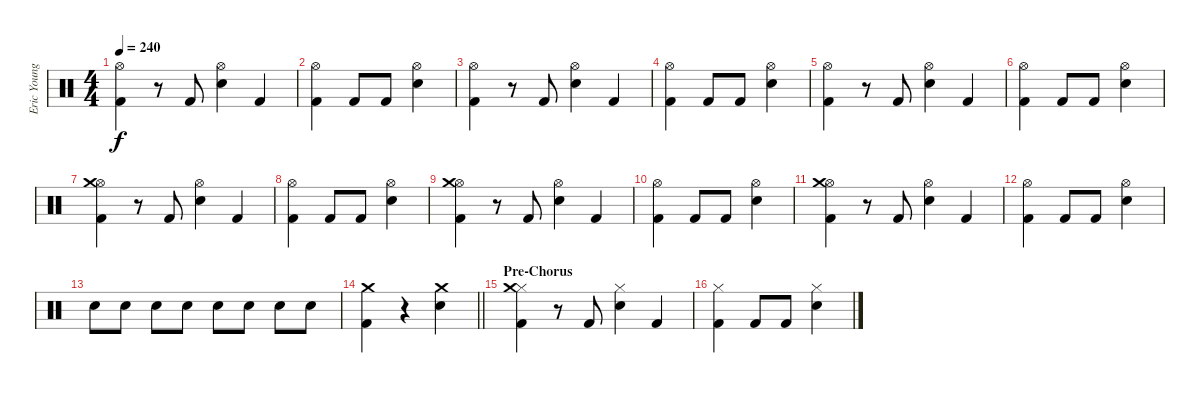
\track ("Eric Young (Drums)" "Eric Young") {instrument percussion}
\staff {score}
\articulation defaults
\ts (4 4)
\tempo 240
\clef neutral
\ks c
("Hi-Hat (open)" "Kick (hit) 2").4{dy f} r.8 "Kick (hit) 2".8 ("Hi-Hat (open)" "Snare (hit) 2").4 "Kick (hit) 2".4 |
("Hi-Hat (open)" "Kick (hit) 2").4 "Kick (hit) 2".8 "Kick (hit) 2".8 ("Hi-Hat (open)" "Snare (hit) 2").4 |
("Hi-Hat (open)" "Kick (hit) 2").4 r.8 "Kick (hit) 2".8 ("Hi-Hat (open)" "Snare (hit) 2").4 "Kick (hit) 2".4 |
("Hi-Hat (open)" "Kick (hit) 2").4 "Kick (hit) 2".8 "Kick (hit) 2".8 ("Hi-Hat (open)" "Snare (hit) 2").4 |
("Hi-Hat (open)" "Kick (hit) 2").4 r.8 "Kick (hit) 2".8 ("Hi-Hat (open)" "Snare (hit) 2").4 "Kick (hit) 2".4 |
("Hi-Hat (open)" "Kick (hit) 2").4 "Kick (hit) 2".8 "Kick (hit) 2".8 ("Hi-Hat (open)" "Snare (hit) 2").4 |
("Hi-Hat (open)" "Kick (hit) 2" "Crash medium (hit)").4 r.8 "Kick (hit) 2".8 ("Hi-Hat (open)" "Snare (hit) 2").4 "Kick (hit) 2".4 |
("Hi-Hat (open)" "Kick (hit) 2").4 "Kick (hit) 2".8 "Kick (hit) 2".8 ("Hi-Hat (open)" "Snare (hit) 2").4 |
("Hi-Hat (open)" "Kick (hit) 2" "Crash medium (hit)").4 r.8 "Kick (hit) 2".8 ("Hi-Hat (open)" "Snare (hit) 2").4 "Kick (hit) 2".4 |
("Hi-Hat (open)" "Kick (hit) 2").4 "Kick (hit) 2".8 "Kick (hit) 2".8 ("Hi-Hat (open)" "Snare (hit) 2").4 |
("Hi-Hat (open)" "Kick (hit) 2" "Crash medium (hit)").4 r.8 "Kick (hit) 2".8 ("Hi-Hat (open)" "Snare (hit) 2").4 "Kick (hit) 2".4 |
("Hi-Hat (open)" "Kick (hit) 2").4 "Kick (hit) 2".8 "Kick (hit) 2".8 ("Hi-Hat (open)" "Snare (hit) 2").4 |
"Snare (hit) 2".8 "Snare (hit) 2".8 "Snare (hit) 2".8 "Snare (hit) 2".8 "Snare (hit) 2".8 "Snare (hit) 2".8 "Snare (hit) 2".8 "Snare (hit) 2".8 |
\barLineRight lightlight
("Kick (hit) 2" "Crash medium (hit)").4 r.4 ("Snare (hit) 2" "Crash medium (hit)").4 |
\section ("" "Pre-Chorus")
("Hi-Hat (closed)" "Kick (hit) 2" "Crash medium (hit)").4 r.8 "Kick (hit) 2".8 ("Hi-Hat (closed)" "Snare (hit) 2").4 "Kick (hit) 2".4 |
("Hi-Hat (closed)" "Kick (hit) 2").4 "Kick (hit) 2".8 "Kick (hit) 2".8 ("Hi-Hat (closed)" "Snare (hit) 2").4
